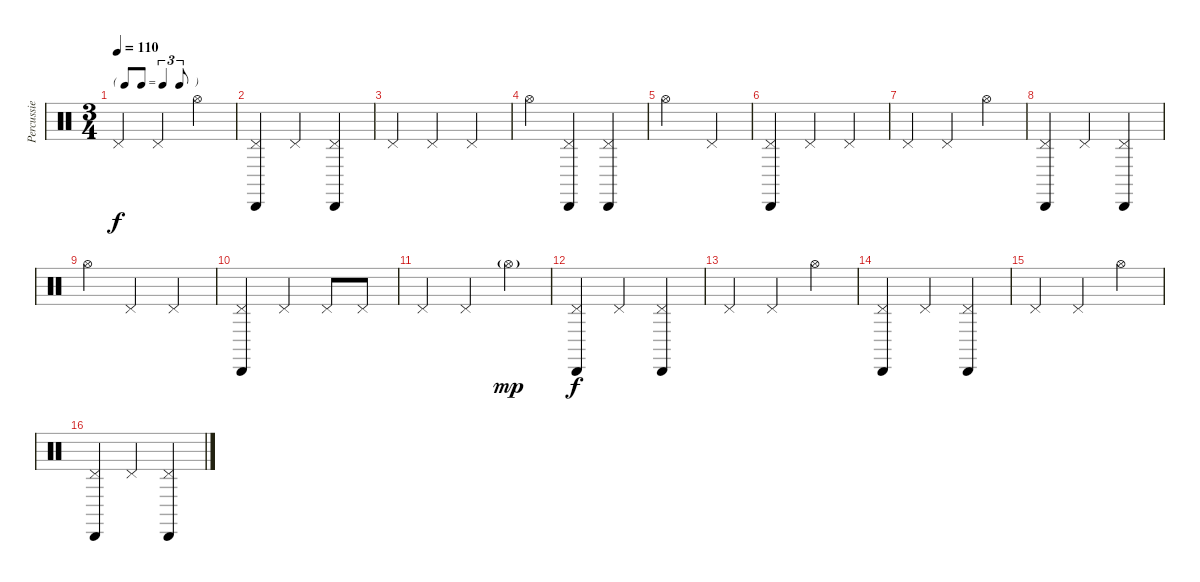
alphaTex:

\track ("Percussie" "Percussie") {instrument percussion}
\staff {score}
\articulation defaults
\ts (3 4)
\tf triplet8th
\tempo 110
\clef neutral
\ks c "Pedal Hi-Hat (hit)".4{dy f} "Pedal Hi-Hat (hit)".4 "Hi-Hat (open)".4
|
("Cabasa (hit)" "Pedal Hi-Hat (hit)").4 "Pedal Hi-Hat (hit)".4 ("Cabasa (hit)" "Pedal Hi-Hat (hit)").4 |
"Pedal Hi-Hat (hit)".4 "Pedal Hi-Hat (hit)".4 "Pedal Hi-Hat (hit)".4 |
"Hi-Hat (open)".4 ("Cabasa (hit)" "Pedal Hi-Hat (hit)").4 ("Cabasa (hit)" "Pedal Hi-Hat (hit)").4 |
"Hi-Hat (open)".2 "Pedal Hi-Hat (hit)".4 |
("Cabasa (hit)" "Pedal Hi-Hat (hit)").4 "Pedal Hi-Hat (hit)".4 "Pedal Hi-Hat (hit)".4 |
"Pedal Hi-Hat (hit)".4 "Pedal Hi-Hat (hit)".4 "Hi-Hat (open)".4 |
("Cabasa (hit)" "Pedal Hi-Hat (hit)").4 "Pedal Hi-Hat (hit)".4 ("Cabasa (hit)" "Pedal Hi-Hat (hit)").4 |
"Hi-Hat (open)".4 "Pedal Hi-Hat (hit)".4 "Pedal Hi-Hat (hit)".4 |
("Cabasa (hit)" "Pedal Hi-Hat (hit)").4 "Pedal Hi-Hat (hit)".4 "Pedal Hi-Hat (hit)".8 "Pedal Hi-Hat (hit)".8 |
"Pedal Hi-Hat (hit)".4 "Pedal Hi-Hat (hit)".4 "Hi-Hat (open)"{g}.4{dy mp} |
("Cabasa (hit)" "Pedal Hi-Hat (hit)").4{dy f} "Pedal Hi-Hat (hit)".4 ("Cabasa (hit)" "Pedal Hi-Hat (hit)").4 |
"Pedal Hi-Hat (hit)".4 "Pedal Hi-Hat (hit)".4 "Hi-Hat (open)".4 |
("Cabasa (hit)" "Pedal Hi-Hat (hit)").4 "Pedal Hi-Hat (hit)".4 ("Cabasa (hit)" "Pedal Hi-Hat (hit)").4 |
"Pedal Hi-Hat (hit)".4 "Pedal Hi-Hat (hit)".4 "Hi-Hat (open)".4 |
("Cabasa (hit)" "Pedal Hi-Hat (hit)").4 "Pedal Hi-Hat (hit)".4 ("Cabasa (hit)" "Pedal Hi-Hat (hit)").4
